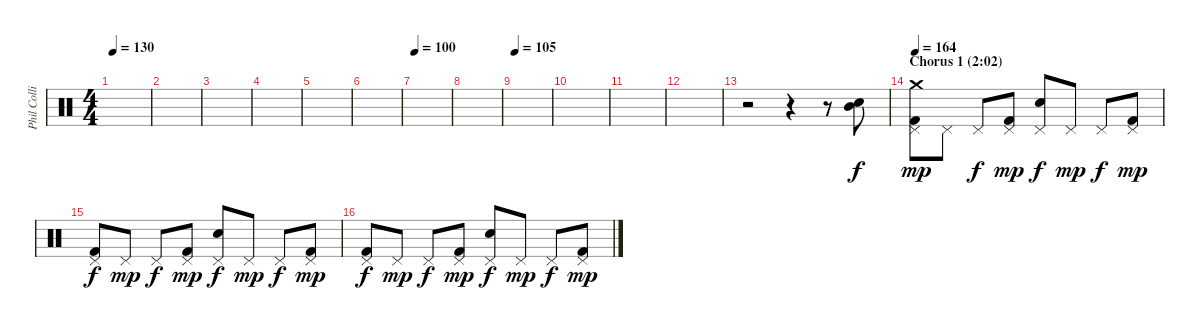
\track ("Phil Collins (drums)" "Phil Colli") {instrument percussion}
\staff {score}
\articulation defaults
\ts (4 4)
\tempo 130
\clef neutral
\ks c
|
|
|
|
|
|
\tempo 100
|
|
\tempo 105
|
|
|
|
r.2 r.4 r.8 ("Mid Tom (hit)" "Electric Snare (hit)").8 |
\section ("" "Chorus 1 (2:02)")
\tempo 164
("Crash medium (hit)" "Pedal Hi-Hat (hit)" "Kick (hit) 2").8{dy mp} "Pedal Hi-Hat (hit)".8 "Pedal Hi-Hat (hit)".8{dy f} ("Pedal Hi-Hat (hit)" "Kick (hit) 2").8{dy mp} ("Pedal Hi-Hat (hit)" "Electric Snare (hit)").8{dy f} "Pedal Hi-Hat (hit)".8{dy mp} "Pedal Hi-Hat (hit)".8{dy f} ("Pedal Hi-Hat (hit)" "Kick (hit) 2").8{dy mp} |
("Pedal Hi-Hat (hit)" "Kick (hit) 2").8{dy f} "Pedal Hi-Hat (hit)".8{dy mp} "Pedal Hi-Hat (hit)".8{dy f} ("Pedal Hi-Hat (hit)" "Kick (hit) 2").8{dy mp} ("Pedal Hi-Hat (hit)" "Electric Snare (hit)").8{dy f} "Pedal Hi-Hat (hit)".8{dy mp} "Pedal Hi-Hat (hit)".8{dy f} ("Pedal Hi-Hat (hit)" "Kick (hit) 2").8{dy mp} |
("Pedal Hi-Hat (hit)" "Kick (hit) 2").8{dy f} "Pedal Hi-Hat (hit)".8{dy mp} "Pedal Hi-Hat (hit)".8{dy f} ("Pedal Hi-Hat (hit)" "Kick (hit) 2").8{dy mp} ("Pedal Hi-Hat (hit)" "Electric Snare (hit)").8{dy f} "Pedal Hi-Hat (hit)".8{dy mp} "Pedal Hi-Hat (hit)".8{dy f} ("Pedal Hi-Hat (hit)" "Kick (hit) 2").8{dy mp}
